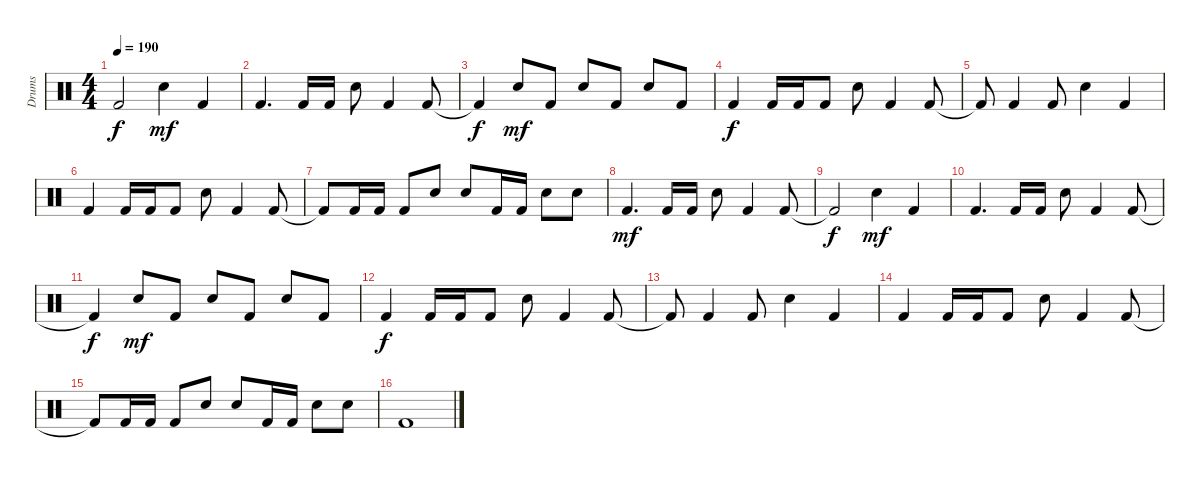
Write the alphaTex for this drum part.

\track ("Drums" "Drums") {instrument percussion}
\staff {score}
\articulation defaults
\ts (4 4)
\tempo 190
\clef neutral
\ks c "Kick (hit) 2"{t}.2{dy f} "Snare (hit) 2".4{dy mf} "Kick (hit) 2".4
|
"Kick (hit) 2".4{d} "Kick (hit) 2".16 "Kick (hit) 2".16 "Snare (hit) 2".8 "Kick (hit) 2".4 "Kick (hit) 2".8 |
"Kick (hit) 2"{t}.4{dy f} "Snare (hit) 2".8{dy mf} "Kick (hit) 2".8 "Snare (hit) 2".8 "Kick (hit) 2".8 "Snare (hit) 2".8 "Kick (hit) 2".8 |
"Kick (hit) 2".4{dy f} "Kick (hit) 2".16 "Kick (hit) 2".16 "Kick (hit) 2".8 "Snare (hit) 2".8 "Kick (hit) 2".4 "Kick (hit) 2".8 |
"Kick (hit) 2"{t}.8 "Kick (hit) 2".4 "Kick (hit) 2".8 "Snare (hit) 2".4 "Kick (hit) 2".4 |
"Kick (hit) 2".4 "Kick (hit) 2".16 "Kick (hit) 2".16 "Kick (hit) 2".8 "Snare (hit) 2".8 "Kick (hit) 2".4 "Kick (hit) 2".8 |
"Kick (hit) 2"{t}.8 "Kick (hit) 2".16 "Kick (hit) 2".16 "Kick (hit) 2".8 "Snare (hit) 2".8 "Snare (hit) 2".8 "Kick (hit) 2".16 "Kick (hit) 2".16 "Snare (hit) 2".8 "Snare (hit) 2".8 |
"Kick (hit) 2".4{d dy mf} "Kick (hit) 2".16 "Kick (hit) 2".16 "Snare (hit) 2".8 "Kick (hit) 2".4 "Kick (hit) 2".8 |
"Kick (hit) 2"{t}.2{dy f} "Snare (hit) 2".4{dy mf} "Kick (hit) 2".4 |
"Kick (hit) 2".4{d} "Kick (hit) 2".16 "Kick (hit) 2".16 "Snare (hit) 2".8 "Kick (hit) 2".4 "Kick (hit) 2".8 |
"Kick (hit) 2"{t}.4{dy f} "Snare (hit) 2".8{dy mf} "Kick (hit) 2".8 "Snare (hit) 2".8 "Kick (hit) 2".8 "Snare (hit) 2".8 "Kick (hit) 2".8 |
"Kick (hit) 2".4{dy f} "Kick (hit) 2".16 "Kick (hit) 2".16 "Kick (hit) 2".8 "Snare (hit) 2".8 "Kick (hit) 2".4 "Kick (hit) 2".8 |
"Kick (hit) 2"{t}.8 "Kick (hit) 2".4 "Kick (hit) 2".8 "Snare (hit) 2".4 "Kick (hit) 2".4 |
"Kick (hit) 2".4 "Kick (hit) 2".16 "Kick (hit) 2".16 "Kick (hit) 2".8 "Snare (hit) 2".8 "Kick (hit) 2".4 "Kick (hit) 2".8 |
"Kick (hit) 2"{t}.8 "Kick (hit) 2".16 "Kick (hit) 2".16 "Kick (hit) 2".8 "Snare (hit) 2".8 "Snare (hit) 2".8 "Kick (hit) 2".16 "Kick (hit) 2".16 "Snare (hit) 2".8 "Snare (hit) 2".8 |
"Kick (hit) 2".1
